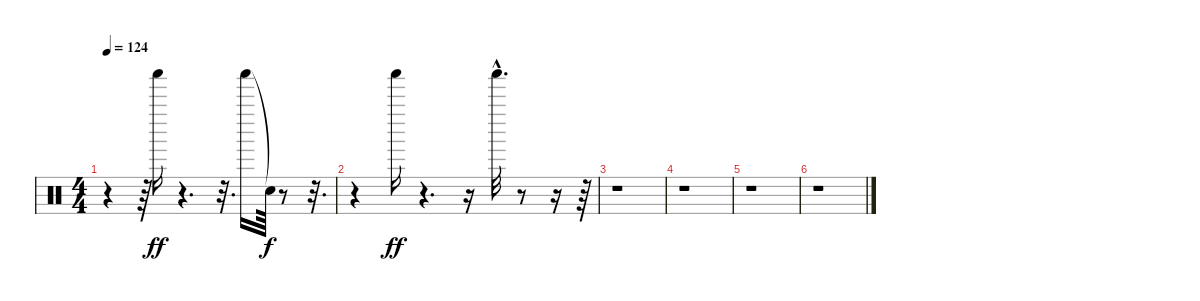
\track "" {instrument percussion}
\staff {score}
\articulation defaults
\ts (4 4)
\tempo 124
\clef neutral
\ks c
r.4{dy ff} r.64 "Shaker (hit)".16 r.4{d} r.32{d} "Shaker (hit)".16 "Snare (hit)"{t}.64{dy f} r.8 r.32{d} |
r.4 "Shaker (hit)".16{dy ff} r.4{d} r.16 "Shaker (hit)"{hac}.32{d} r.8 r.16 r.64 |
r.1 |
r.1 |
r.1 |
r.1
